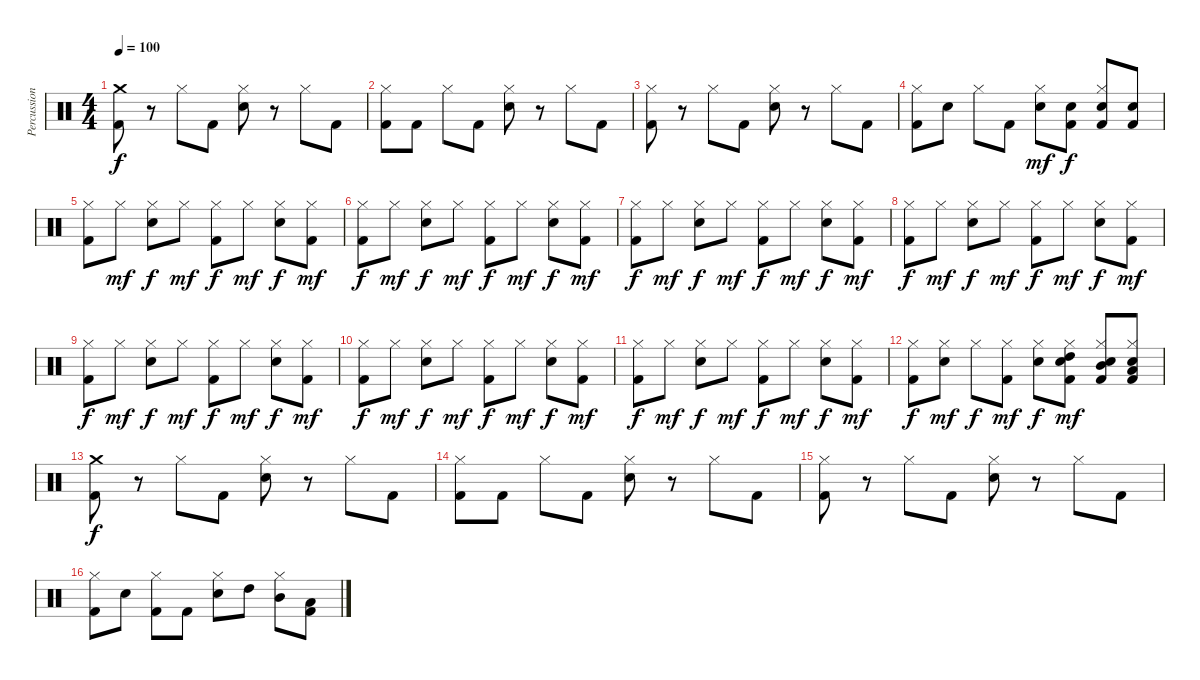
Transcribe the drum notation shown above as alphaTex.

\track ("Percussion" "Percussion") {instrument percussion}
\staff {score}
\articulation defaults
\ts (4 4)
\tempo 100
\clef neutral
\ks c
("Crash medium (hit)" "Kick (hit) 2").8{dy f} r.8 "Hi-Hat (closed)".8 "Kick (hit) 2".8 ("Hi-Hat (closed)" "Snare (hit) 2").8 r.8 "Hi-Hat (closed)".8 "Kick (hit) 2".8 |
("Hi-Hat (closed)" "Kick (hit) 2").8 "Kick (hit) 2".8 "Hi-Hat (closed)".8 "Kick (hit) 2".8 ("Hi-Hat (closed)" "Snare (hit) 2").8 r.8 "Hi-Hat (closed)".8 "Kick (hit) 2".8 |
("Hi-Hat (closed)" "Kick (hit) 2").8 r.8 "Hi-Hat (closed)".8 "Kick (hit) 2".8 ("Hi-Hat (closed)" "Snare (hit) 2").8 r.8 "Hi-Hat (closed)".8 "Kick (hit) 2".8 |
("Hi-Hat (closed)" "Kick (hit) 2").8 "Snare (hit) 2".8 "Hi-Hat (closed)".8 "Kick (hit) 2".8 ("Hi-Hat (closed)" "Electric Snare (hit)").8{dy mf} ("Snare (hit) 2" "Kick (hit) 2").8{dy f} ("Hi-Hat (closed)" "Snare (hit) 2" "Kick (hit) 2").8 ("Snare (hit) 2" "Kick (hit) 2").8 |
("Hi-Hat (closed)" "Kick (hit) 2").8{volume 14} "Hi-Hat (closed)".8{dy mf} ("Hi-Hat (closed)" "Snare (hit) 2").8{dy f} "Hi-Hat (closed)".8{dy mf} ("Hi-Hat (closed)" "Kick (hit) 2").8{dy f} "Hi-Hat (closed)".8{dy mf} ("Hi-Hat (closed)" "Snare (hit) 2").8{dy f} ("Hi-Hat (closed)" "Kick (hit) 2").8{dy mf} |
("Hi-Hat (closed)" "Kick (hit) 2").8{dy f} "Hi-Hat (closed)".8{dy mf} ("Hi-Hat (closed)" "Snare (hit) 2").8{dy f} "Hi-Hat (closed)".8{dy mf} ("Hi-Hat (closed)" "Kick (hit) 2").8{dy f} "Hi-Hat (closed)".8{dy mf} ("Hi-Hat (closed)" "Snare (hit) 2").8{dy f} ("Hi-Hat (closed)" "Kick (hit) 2").8{dy mf} |
("Hi-Hat (closed)" "Kick (hit) 2").8{dy f} "Hi-Hat (closed)".8{dy mf} ("Hi-Hat (closed)" "Snare (hit) 2").8{dy f} "Hi-Hat (closed)".8{dy mf} ("Hi-Hat (closed)" "Kick (hit) 2").8{dy f} "Hi-Hat (closed)".8{dy mf} ("Hi-Hat (closed)" "Snare (hit) 2").8{dy f} ("Hi-Hat (closed)" "Kick (hit) 2").8{dy mf} |
("Hi-Hat (closed)" "Kick (hit) 2").8{dy f} "Hi-Hat (closed)".8{dy mf} ("Hi-Hat (closed)" "Snare (hit) 2").8{dy f} "Hi-Hat (closed)".8{dy mf} ("Hi-Hat (closed)" "Kick (hit) 2").8{dy f} "Hi-Hat (closed)".8{dy mf} ("Hi-Hat (closed)" "Snare (hit) 2").8{dy f} ("Hi-Hat (closed)" "Kick (hit) 2").8{dy mf} |
("Hi-Hat (closed)" "Kick (hit) 2").8{dy f} "Hi-Hat (closed)".8{dy mf} ("Hi-Hat (closed)" "Snare (hit) 2").8{dy f} "Hi-Hat (closed)".8{dy mf} ("Hi-Hat (closed)" "Kick (hit) 2").8{dy f} "Hi-Hat (closed)".8{dy mf} ("Hi-Hat (closed)" "Snare (hit) 2").8{dy f} ("Hi-Hat (closed)" "Kick (hit) 2").8{dy mf} |
("Hi-Hat (closed)" "Kick (hit) 2").8{dy f} "Hi-Hat (closed)".8{dy mf} ("Hi-Hat (closed)" "Snare (hit) 2").8{dy f} "Hi-Hat (closed)".8{dy mf} ("Hi-Hat (closed)" "Kick (hit) 2").8{dy f} "Hi-Hat (closed)".8{dy mf} ("Hi-Hat (closed)" "Snare (hit) 2").8{dy f} ("Hi-Hat (closed)" "Kick (hit) 2").8{dy mf} |
("Hi-Hat (closed)" "Kick (hit) 2").8{dy f} "Hi-Hat (closed)".8{dy mf} ("Hi-Hat (closed)" "Snare (hit) 2").8{dy f} "Hi-Hat (closed)".8{dy mf} ("Hi-Hat (closed)" "Kick (hit) 2").8{dy f} "Hi-Hat (closed)".8{dy mf} ("Hi-Hat (closed)" "Snare (hit) 2").8{dy f} ("Hi-Hat (closed)" "Kick (hit) 2").8{dy mf} |
("Hi-Hat (closed)" "Kick (hit) 2").8{dy f} ("Hi-Hat (closed)" "Snare (hit) 2").8{dy mf} "Hi-Hat (closed)".8{dy f} ("Hi-Hat (closed)" "Kick (hit) 2").8{dy mf} ("Hi-Hat (closed)" "Snare (hit) 2").8{dy f} ("Hi-Hat (closed)" "High Tom (hit)" "Snare (hit) 2" "Kick (hit) 2").8{dy mf} ("Hi-Hat (closed)" "Mid Tom (hit)" "Snare (hit) 2" "Kick (hit) 2").8 ("Hi-Hat (closed)" "Low Tom (hit)" "Snare (hit) 2" "Kick (hit) 2").8 |
("Crash medium (hit)" "Kick (hit) 2").8{dy f} r.8 "Hi-Hat (closed)".8 "Kick (hit) 2".8 ("Hi-Hat (closed)" "Snare (hit) 2").8 r.8 "Hi-Hat (closed)".8 "Kick (hit) 2".8 |
("Hi-Hat (closed)" "Kick (hit) 2").8 "Kick (hit) 2".8 "Hi-Hat (closed)".8 "Kick (hit) 2".8 ("Hi-Hat (closed)" "Snare (hit) 2").8 r.8 "Hi-Hat (closed)".8 "Kick (hit) 2".8 |
("Hi-Hat (closed)" "Kick (hit) 2").8 r.8 "Hi-Hat (closed)".8 "Kick (hit) 2".8 ("Hi-Hat (closed)" "Snare (hit) 2").8 r.8 "Hi-Hat (closed)".8 "Kick (hit) 2".8 |
("Hi-Hat (closed)" "Kick (hit) 2").8 "Snare (hit) 2".8 ("Hi-Hat (closed)" "Kick (hit) 2").8 "Kick (hit) 2".8 ("Hi-Hat (closed)" "Snare (hit) 2").8 "High Tom (hit)".8 ("Hi-Hat (closed)" "Mid Tom (hit)").8 ("Low Tom (hit)" "Kick (hit) 2").8
